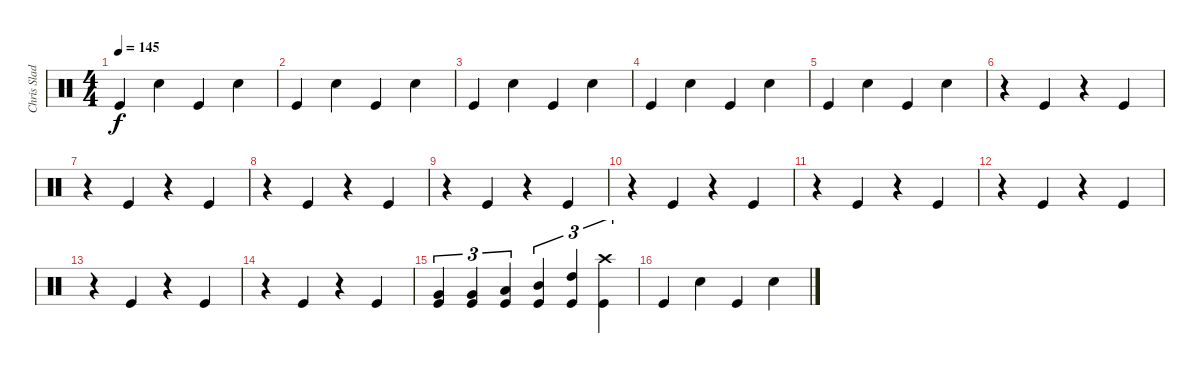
\track ("Chris Slade" "Chris Slad") {instrument percussion}
\staff {score}
\articulation defaults
\ts (4 4)
\tempo 145
\clef neutral
\ks c "Kick (hit)".4{dy f} "Snare (hit) 2".4 "Kick (hit)".4 "Snare (hit) 2".4
|
"Kick (hit)".4 "Snare (hit) 2".4 "Kick (hit)".4 "Snare (hit) 2".4 |
"Kick (hit)".4 "Snare (hit) 2".4 "Kick (hit)".4 "Snare (hit) 2".4 |
"Kick (hit)".4 "Snare (hit) 2".4 "Kick (hit)".4 "Snare (hit) 2".4 |
"Kick (hit)".4 "Snare (hit) 2".4 "Kick (hit)".4 "Snare (hit) 2".4 |
r.4 "Kick (hit)".4 r.4 "Kick (hit)".4 |
r.4 "Kick (hit)".4 r.4 "Kick (hit)".4 |
r.4 "Kick (hit)".4 r.4 "Kick (hit)".4 |
r.4 "Kick (hit)".4 r.4 "Kick (hit)".4 |
r.4 "Kick (hit)".4 r.4 "Kick (hit)".4 |
r.4 "Kick (hit)".4 r.4 "Kick (hit)".4 |
r.4 "Kick (hit)".4 r.4 "Kick (hit)".4 |
r.4 "Kick (hit)".4 r.4 "Kick (hit)".4 |
r.4 "Kick (hit)".4 r.4 "Kick (hit)".4 |
("Very Low Tom (hit)" "Kick (hit)").4{tu (3 2)} ("Very Low Tom (hit)" "Kick (hit)").4{tu (3 2)} ("Low Floor Tom (hit)" "Kick (hit)").4{tu (3 2)} ("Mid Tom (hit)" "Kick (hit)").4{tu (3 2)} ("High Tom (hit)" "Kick (hit)").4{tu (3 2)} ("Crash high (hit)" "Kick (hit)").4{tu (3 2)} |
"Kick (hit)".4 "Snare (hit) 2".4 "Kick (hit)".4 "Snare (hit) 2".4
